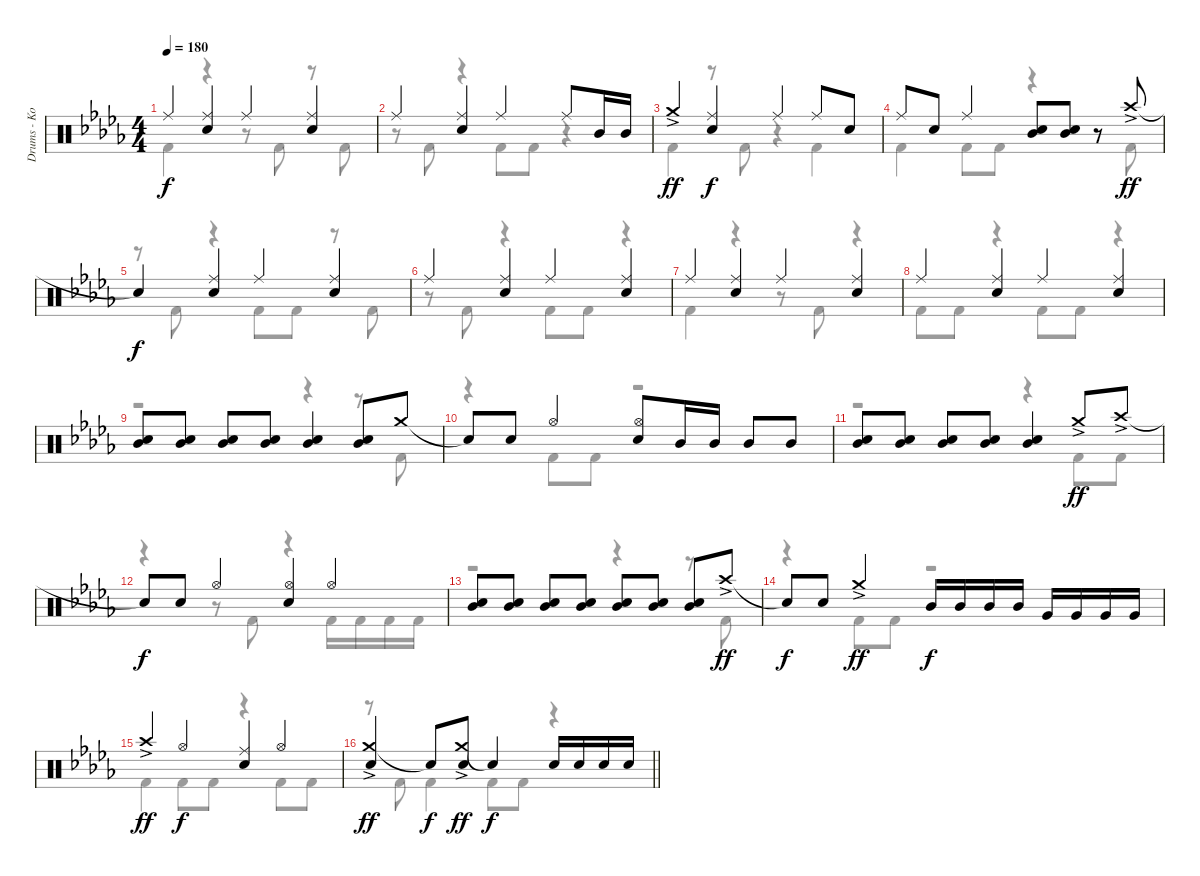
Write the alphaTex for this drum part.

\track ("Drums - Koji Hasegawa" "Drums - Ko") {instrument percussion}
\staff {score}
\articulation defaults
\voice
\ts (4 4)
\tempo 180
\clef neutral
\ks db "Ride (middle)".4{dy f}
("Ride (middle)" "Snare (hit) 2").4 "Ride (middle)".4 ("Ride (middle)" "Snare (hit) 2").4 |
"Ride (middle)".4 ("Ride (middle)" "Snare (hit) 2").4 "Ride (middle)".4 "Ride (middle)".8 "Mid Tom (hit)".16 "Mid Tom (hit)".16 |
"Crash medium (hit)"{ac}.4{dy ff} ("Ride (middle)" "Snare (hit) 2").4{dy f} "Ride (middle)".4 "Ride (middle)".8 "Snare (hit) 2".8 |
"Ride (middle)".8 "Snare (hit) 2".8 "Ride (middle)".4 ("Mid Tom (hit)" "Snare (hit) 2").8 ("Mid Tom (hit)" "Snare (hit) 2").8 r.8 "Crash high (hit)"{ac}.8{dy ff} |
"Snare (hit)"{t}.4{dy f} ("Ride (middle)" "Snare (hit) 2").4 "Ride (middle)".4 ("Ride (middle)" "Snare (hit) 2").4 |
"Ride (middle)".4 ("Ride (middle)" "Snare (hit) 2").4 "Ride (middle)".4 ("Ride (middle)" "Snare (hit) 2").4 |
"Ride (middle)".4 ("Ride (middle)" "Snare (hit) 2").4 "Ride (middle)".4 ("Ride (middle)" "Snare (hit) 2").4 |
"Ride (middle)".4 ("Ride (middle)" "Snare (hit) 2").4 "Ride (middle)".4 ("Ride (middle)" "Snare (hit) 2").4 |
("Mid Tom (hit)" "Snare (hit) 2").8 ("Mid Tom (hit)" "Snare (hit) 2").8 ("Mid Tom (hit)" "Snare (hit) 2").8 ("Mid Tom (hit)" "Snare (hit) 2").8 ("Mid Tom (hit)" "Snare (hit) 2").4 ("Mid Tom (hit)" "Snare (hit) 2").8 "Crash medium (hit)".8 |
"Snare (hit)"{t}.8 "Snare (hit) 2".8 "Hi-Hat (open)".4 ("Hi-Hat (open)" "Snare (hit) 2").8 "Mid Tom (hit)".16 "Mid Tom (hit)".16 "Mid Tom (hit)".8 "Mid Tom (hit)".8 |
("Mid Tom (hit)" "Snare (hit) 2").8 ("Mid Tom (hit)" "Snare (hit) 2").8 ("Mid Tom (hit)" "Snare (hit) 2").8 ("Mid Tom (hit)" "Snare (hit) 2").8 ("Mid Tom (hit)" "Snare (hit) 2").4 "Crash medium (hit)"{ac}.8{dy ff} "Crash high (hit)"{ac}.8 |
"Snare (hit)"{t}.8{dy f} "Snare (hit) 2".8 "Hi-Hat (open)".4 ("Hi-Hat (open)" "Snare (hit) 2").4 "Hi-Hat (open)".4 |
("Mid Tom (hit)" "Snare (hit) 2").8 ("Mid Tom (hit)" "Snare (hit) 2").8 ("Mid Tom (hit)" "Snare (hit) 2").8 ("Mid Tom (hit)" "Snare (hit) 2").8 ("Mid Tom (hit)" "Snare (hit) 2").8 ("Mid Tom (hit)" "Snare (hit) 2").8 ("Mid Tom (hit)" "Snare (hit) 2").8 "Crash high (hit)"{ac}.8{dy ff} |
"Snare (hit)"{t}.8{dy f} "Snare (hit) 2".8 "Crash medium (hit)"{ac}.4{dy ff} "Mid Tom (hit)".16{dy f} "Mid Tom (hit)".16 "Mid Tom (hit)".16 "Mid Tom (hit)".16 "Very Low Tom (hit)".16 "Very Low Tom (hit)".16 "Very Low Tom (hit)".16 "Very Low Tom (hit)".16 |
"Crash high (hit)"{ac}.4{dy ff} "Hi-Hat (open)".4{dy f} ("Ride (middle)" "Snare (hit) 2").4 "Hi-Hat (open)".4 |
\barLineRight lightlight
("Crash medium (hit)"{ac} "Snare (hit) 2").4{dy ff} "Snare (hit)"{t}.8{dy f} ("Crash medium (hit)"{ac} "Snare (hit) 2").8{dy ff} "Snare (hit)"{t}.4{dy f} "Snare (hit) 2".16 "Snare (hit) 2".16 "Snare (hit) 2".16 "Snare (hit) 2".16
\voice
\clef neutral
\ottava regular
\simile none
\ks db "Kick (hit) 2".4{dy f}
r.4 r.8 "Kick (hit) 2".8 r.8 "Kick (hit) 2".8 |
r.8 "Kick (hit) 2".8 r.4 "Kick (hit) 2".8 "Kick (hit) 2".8 r.4 |
"Kick (hit) 2".4 r.8 "Kick (hit) 2".8 r.4 "Kick (hit) 2".4 |
"Kick (hit) 2".4 "Kick (hit) 2".8 "Kick (hit) 2".8 r.4 r.8 "Kick (hit) 2".8 |
r.8 "Kick (hit) 2".8 r.4 "Kick (hit) 2".8 "Kick (hit) 2".8 r.8 "Kick (hit) 2".8 |
r.8 "Kick (hit) 2".8 r.4 "Kick (hit) 2".8 "Kick (hit) 2".8 r.4 |
"Kick (hit) 2".4 r.4 r.8 "Kick (hit) 2".8 r.4 |
"Kick (hit) 2".8 "Kick (hit) 2".8 r.4 "Kick (hit) 2".8 "Kick (hit) 2".8 r.4 |
r.2 r.4 r.8 "Kick (hit) 2".8 |
r.4 "Kick (hit) 2".8 "Kick (hit) 2".8 r.2 |
r.2 r.4 "Kick (hit) 2".8 "Kick (hit) 2".8 |
r.4 r.8 "Kick (hit) 2".8 r.4 "Kick (hit) 2".16 "Kick (hit) 2".16 "Kick (hit) 2".16 "Kick (hit) 2".16 |
r.2 r.4 r.8 "Kick (hit) 2".8 |
r.4 "Kick (hit) 2".8 "Kick (hit) 2".8 r.2 |
"Kick (hit) 2".4 "Kick (hit) 2".8 "Kick (hit) 2".8 r.4 "Kick (hit) 2".8 "Kick (hit) 2".8 |
\barLineRight lightlight
r.8 "Kick (hit) 2".8 "Kick (hit) 2".4 "Kick (hit) 2".8 "Kick (hit) 2".8 r.4
